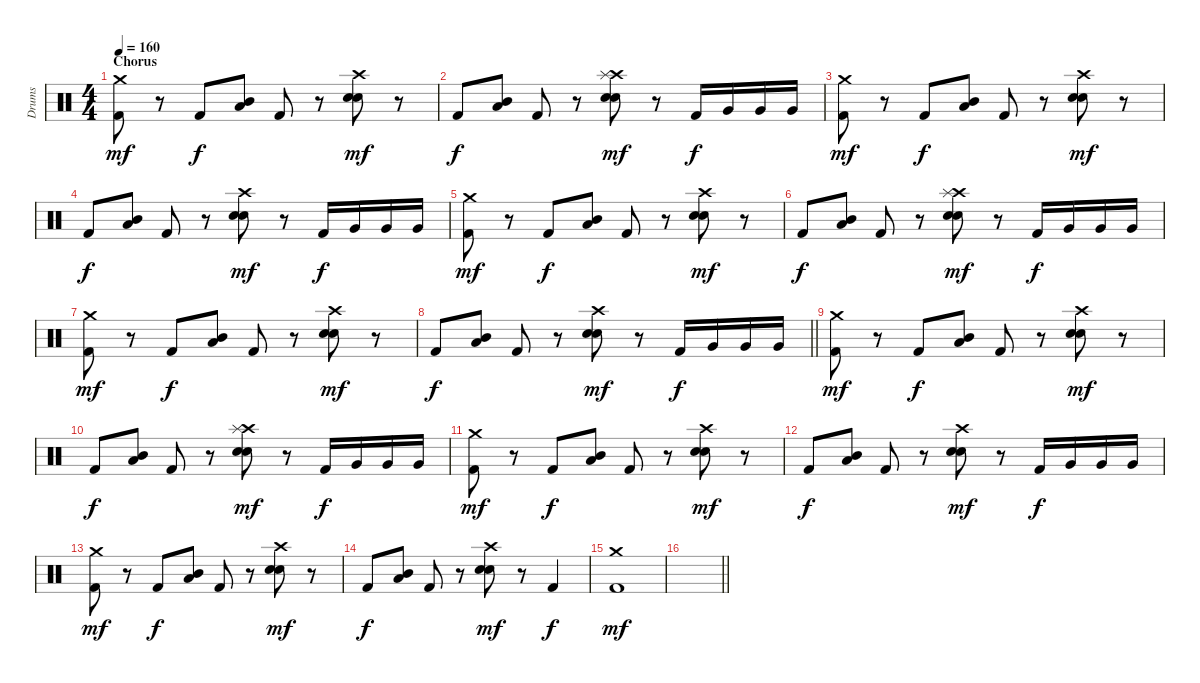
\track ("Drums" "Drums") {instrument percussion}
\staff {score}
\articulation defaults
\ts (4 4)
\section ("" "Chorus")
\tempo 160
\clef neutral
\ks c
("Crash medium (hit)" "Kick (hit) 2").8{dy mf} r.8 "Kick (hit) 2".8{dy f} ("Mid Tom (hit)" "Low Tom (hit)").8 "Kick (hit) 2".8 r.8 ("Crash high (hit)" "Electric Snare (hit)" "Snare (hit) 2").8{dy mf} r.8 |
"Kick (hit) 2".8{dy f} ("Mid Tom (hit)" "Low Tom (hit)").8 "Kick (hit) 2".8 r.8 ("Crash high (hit)" "Splash (hit)" "Electric Snare (hit)" "Snare (hit) 2").8{dy mf} r.8 "Kick (hit) 2".16{dy f} "Very Low Tom (hit)".16 "Very Low Tom (hit)".16 "Very Low Tom (hit)".16 |
("Crash medium (hit)" "Kick (hit) 2").8{dy mf} r.8 "Kick (hit) 2".8{dy f} ("Mid Tom (hit)" "Low Tom (hit)").8 "Kick (hit) 2".8 r.8 ("Crash high (hit)" "Electric Snare (hit)" "Snare (hit) 2").8{dy mf} r.8 |
"Kick (hit) 2".8{dy f} ("Mid Tom (hit)" "Low Tom (hit)").8 "Kick (hit) 2".8 r.8 ("Crash high (hit)" "Electric Snare (hit)" "Snare (hit) 2").8{dy mf} r.8 "Kick (hit) 2".16{dy f} "Very Low Tom (hit)".16 "Very Low Tom (hit)".16 "Very Low Tom (hit)".16 |
("Crash medium (hit)" "Kick (hit) 2").8{dy mf} r.8 "Kick (hit) 2".8{dy f} ("Mid Tom (hit)" "Low Tom (hit)").8 "Kick (hit) 2".8 r.8 ("Crash high (hit)" "Electric Snare (hit)" "Snare (hit) 2").8{dy mf} r.8 |
"Kick (hit) 2".8{dy f} ("Mid Tom (hit)" "Low Tom (hit)").8 "Kick (hit) 2".8 r.8 ("Crash high (hit)" "Splash (hit)" "Electric Snare (hit)" "Snare (hit) 2").8{dy mf} r.8 "Kick (hit) 2".16{dy f} "Very Low Tom (hit)".16 "Very Low Tom (hit)".16 "Very Low Tom (hit)".16 |
("Crash medium (hit)" "Kick (hit) 2").8{dy mf} r.8 "Kick (hit) 2".8{dy f} ("Mid Tom (hit)" "Low Tom (hit)").8 "Kick (hit) 2".8 r.8 ("Crash high (hit)" "Electric Snare (hit)" "Snare (hit) 2").8{dy mf} r.8 |
\barLineRight lightlight "Kick (hit) 2".8{dy f}
("Mid Tom (hit)" "Low Tom (hit)").8 "Kick (hit) 2".8 r.8 ("Crash high (hit)" "Electric Snare (hit)" "Snare (hit) 2").8{dy mf} r.8 "Kick (hit) 2".16{dy f} "Very Low Tom (hit)".16 "Very Low Tom (hit)".16 "Very Low Tom (hit)".16 |
("Crash medium (hit)" "Kick (hit) 2").8{dy mf} r.8 "Kick (hit) 2".8{dy f} ("Mid Tom (hit)" "Low Tom (hit)").8 "Kick (hit) 2".8 r.8 ("Crash high (hit)" "Electric Snare (hit)" "Snare (hit) 2").8{dy mf} r.8 |
"Kick (hit) 2".8{dy f} ("Mid Tom (hit)" "Low Tom (hit)").8 "Kick (hit) 2".8 r.8 ("Crash high (hit)" "Splash (hit)" "Electric Snare (hit)" "Snare (hit) 2").8{dy mf} r.8 "Kick (hit) 2".16{dy f} "Very Low Tom (hit)".16 "Very Low Tom (hit)".16 "Very Low Tom (hit)".16 |
("Crash medium (hit)" "Kick (hit) 2").8{dy mf} r.8 "Kick (hit) 2".8{dy f} ("Mid Tom (hit)" "Low Tom (hit)").8 "Kick (hit) 2".8 r.8 ("Crash high (hit)" "Electric Snare (hit)" "Snare (hit) 2").8{dy mf} r.8 |
"Kick (hit) 2".8{dy f} ("Mid Tom (hit)" "Low Tom (hit)").8 "Kick (hit) 2".8 r.8 ("Crash high (hit)" "Electric Snare (hit)" "Snare (hit) 2").8{dy mf} r.8 "Kick (hit) 2".16{dy f} "Very Low Tom (hit)".16 "Very Low Tom (hit)".16 "Very Low Tom (hit)".16 |
("Crash medium (hit)" "Kick (hit) 2").8{dy mf} r.8 "Kick (hit) 2".8{dy f} ("Mid Tom (hit)" "Low Tom (hit)").8 "Kick (hit) 2".8 r.8 ("Crash high (hit)" "Electric Snare (hit)" "Snare (hit) 2").8{dy mf} r.8 |
"Kick (hit) 2".8{dy f} ("Mid Tom (hit)" "Low Tom (hit)").8 "Kick (hit) 2".8 r.8 ("Crash high (hit)" "Electric Snare (hit)" "Snare (hit) 2").8{dy mf} r.8 "Kick (hit) 2".4{dy f} |
("Crash medium (hit)" "Kick (hit) 2").1{dy mf} |
\barLineRight lightlight
